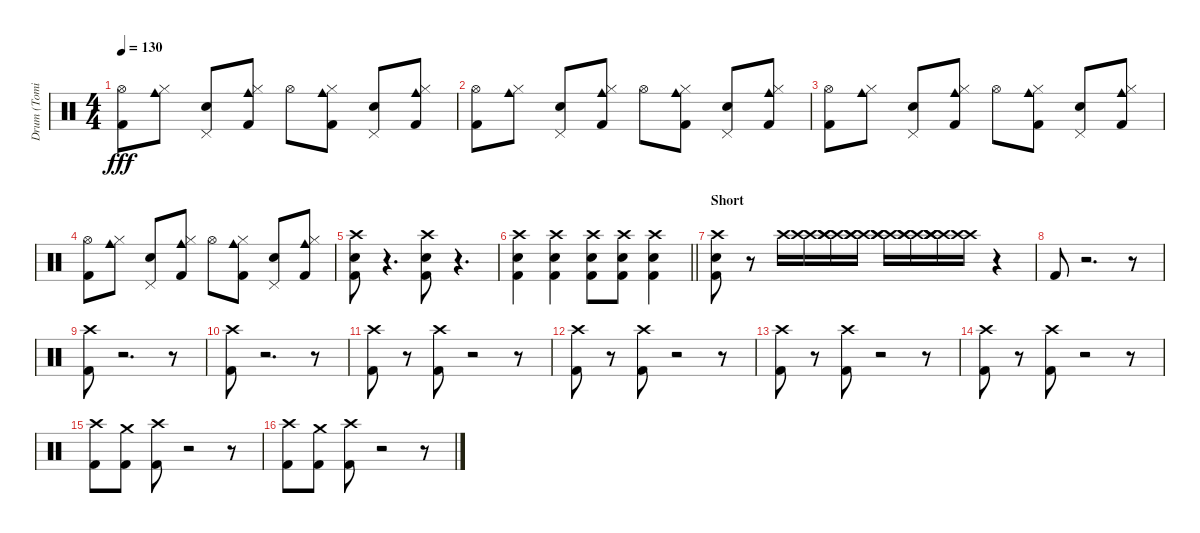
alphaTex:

\track ("Drum (Tomi)" "Drum (Tomi") {instrument percussion}
\staff {score}
\articulation defaults
\ts (4 4)
\tempo 130
\clef neutral
\ks c
("Kick (hit) 2" "Hi-Hat (open)").8{dy fff} ("Hi-Hat (closed)" "Cowbell medium (hit)").8 ("Pedal Hi-Hat (hit)" "Electric Snare (hit)").8 ("Hi-Hat (closed)" "Kick (hit) 2" "Cowbell medium (hit)").8 "Hi-Hat (open)".8 ("Hi-Hat (closed)" "Kick (hit) 2" "Cowbell medium (hit)").8 ("Pedal Hi-Hat (hit)" "Electric Snare (hit)").8 ("Hi-Hat (closed)" "Cowbell medium (hit)" "Kick (hit) 2").8 |
("Hi-Hat (open)" "Kick (hit) 2").8 ("Hi-Hat (closed)" "Cowbell medium (hit)").8 ("Pedal Hi-Hat (hit)" "Electric Snare (hit)").8 ("Kick (hit) 2" "Cowbell medium (hit)" "Hi-Hat (closed)").8 "Hi-Hat (open)".8 ("Hi-Hat (closed)" "Kick (hit) 2" "Cowbell medium (hit)").8 ("Pedal Hi-Hat (hit)" "Electric Snare (hit)").8 ("Cowbell medium (hit)" "Kick (hit) 2" "Hi-Hat (closed)").8 |
("Hi-Hat (open)" "Kick (hit) 2").8 ("Hi-Hat (closed)" "Cowbell medium (hit)").8 ("Pedal Hi-Hat (hit)" "Electric Snare (hit)").8 ("Kick (hit) 2" "Cowbell medium (hit)" "Hi-Hat (closed)").8 "Hi-Hat (open)".8 ("Kick (hit) 2" "Cowbell medium (hit)" "Hi-Hat (closed)").8 ("Pedal Hi-Hat (hit)" "Electric Snare (hit)").8 ("Kick (hit) 2" "Hi-Hat (closed)" "Cowbell medium (hit)").8 |
("Kick (hit) 2" "Hi-Hat (open)").8 ("Hi-Hat (closed)" "Cowbell medium (hit)").8 ("Pedal Hi-Hat (hit)" "Electric Snare (hit)").8 ("Cowbell medium (hit)" "Kick (hit) 2" "Hi-Hat (closed)").8 "Hi-Hat (open)".8 ("Kick (hit) 2" "Cowbell medium (hit)" "Hi-Hat (closed)").8 ("Pedal Hi-Hat (hit)" "Electric Snare (hit)").8 ("Cowbell medium (hit)" "Kick (hit) 2" "Hi-Hat (closed)").8 |
("Crash high (hit)" "Kick (hit) 2" "Electric Snare (hit)").8 r.4{d} ("Kick (hit) 2" "Crash high (hit)" "Electric Snare (hit)").8 r.4{d} |
\barLineRight lightlight
("Crash high (hit)" "Kick (hit) 2" "Electric Snare (hit)").4 ("Kick (hit) 2" "Crash high (hit)" "Electric Snare (hit)").4 ("Kick (hit) 2" "Crash high (hit)" "Electric Snare (hit)").8 ("Crash high (hit)" "Kick (hit) 2" "Electric Snare (hit)").8 ("Crash high (hit)" "Kick (hit) 2" "Electric Snare (hit)").4 |
\section ("" "Short")
("Crash high (hit)" "Kick (hit) 2" "Electric Snare (hit)").8 r.8 "Crash high (hit)".16 ("Crash high (hit)" "Crash high (hit)").16 ("Crash high (hit)" "Crash high (hit)" "Crash high (hit)").16 ("Crash high (hit)" "Crash high (hit)" "Crash high (hit)").16 ("Crash high (hit)" "Crash high (hit)" "Crash high (hit)").16 ("Crash high (hit)" "Crash high (hit)" "Crash high (hit)").16 ("Crash high (hit)" "Crash high (hit)" "Crash high (hit)" "Crash high (hit)").16 ("Crash high (hit)" "Crash high (hit)").16 r.4 |
"Kick (hit) 2".8 r.2{d} r.8 |
("Crash high (hit)" "Kick (hit) 2").8 r.2{d} r.8 |
("Kick (hit) 2" "Crash high (hit)").8 r.2{d} r.8 |
("Crash high (hit)" "Kick (hit) 2").8 r.8 ("Crash high (hit)" "Kick (hit) 2").8 r.2 r.8 |
("Kick (hit) 2" "Crash high (hit)").8 r.8 ("Crash high (hit)" "Kick (hit) 2").8 r.2 r.8 |
("Crash high (hit)" "Kick (hit) 2").8 r.8 ("Crash high (hit)" "Kick (hit) 2").8 r.2 r.8 |
("Kick (hit) 2" "Crash high (hit)").8 r.8 ("Crash high (hit)" "Kick (hit) 2").8 r.2 r.8 |
("Crash high (hit)" "Kick (hit) 2").8 ("Crash medium (hit)" "Kick (hit) 2").8 ("Crash high (hit)" "Kick (hit) 2").8 r.2 r.8 |
("Crash high (hit)" "Kick (hit) 2").8 ("Crash medium (hit)" "Kick (hit) 2").8 ("Crash high (hit)" "Kick (hit) 2").8 r.2 r.8
